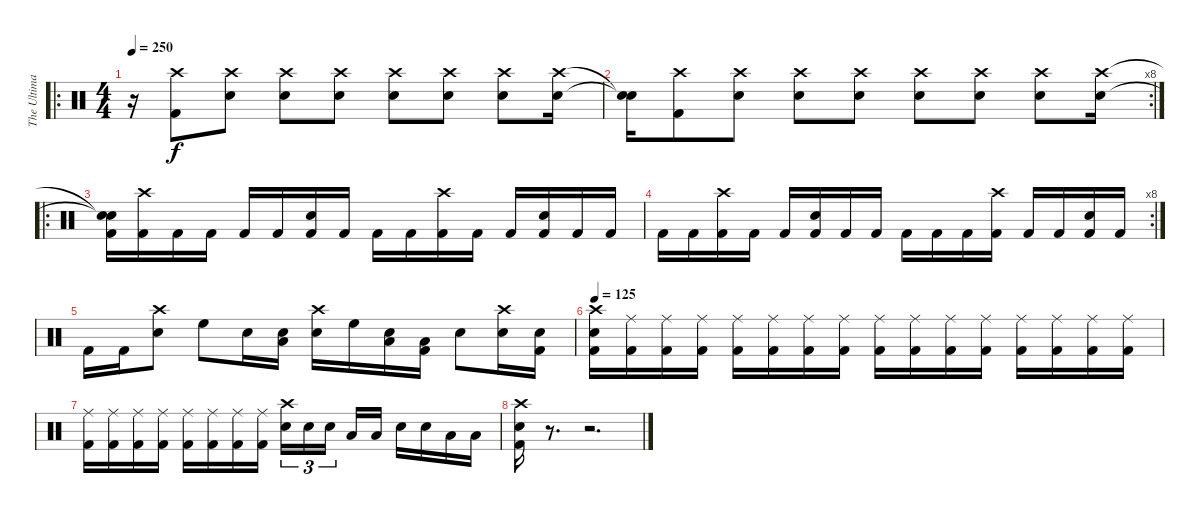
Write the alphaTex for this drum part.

\track ("The Ultimate hero" "The Ultima") {instrument percussion}
\staff {score}
\articulation defaults
\ro
\ts (4 4)
\tempo 250
\clef neutral
\ks c
r.16{dy f} ("Crash high (hit)" "Kick (hit) 2").8 ("Crash high (hit)" "Snare (hit) 2").8 ("Crash high (hit)" "Snare (hit) 2").8 ("Crash high (hit)" "Snare (hit) 2").8 ("Crash high (hit)" "Snare (hit) 2").8 ("Crash high (hit)" "Snare (hit) 2").8 ("Crash high (hit)" "Snare (hit) 2").8 ("Crash high (hit)" "Snare (hit) 2").16 |
\rc 8
("Snare (hit)"{t} "Snare (hit)"{t}).16 ("Crash high (hit)" "Kick (hit) 2").8 ("Crash high (hit)" "Snare (hit) 2").8 ("Crash high (hit)" "Snare (hit) 2").8 ("Crash high (hit)" "Snare (hit) 2").8 ("Crash high (hit)" "Snare (hit) 2").8 ("Crash high (hit)" "Snare (hit) 2").8 ("Crash high (hit)" "Snare (hit) 2").8 ("Crash high (hit)" "Snare (hit) 2").16 |
\ro
("Snare (hit)"{t} "Snare (hit)"{t} "Kick (hit) 2").16 ("Crash high (hit)" "Kick (hit) 2").16 "Kick (hit) 2".16 "Kick (hit) 2".16 "Kick (hit) 2".16 "Kick (hit) 2".16 ("Snare (hit) 2" "Kick (hit) 2").16 "Kick (hit) 2".16 "Kick (hit) 2".16 "Kick (hit) 2".16 ("Crash high (hit)" "Kick (hit) 2").16 "Kick (hit) 2".16 "Kick (hit) 2".16 ("Snare (hit) 2" "Kick (hit) 2").16 "Kick (hit) 2".16 "Kick (hit) 2".16 |
\rc 8 "Kick (hit) 2".16 "Kick (hit) 2".16
("Crash high (hit)" "Kick (hit) 2").16 "Kick (hit) 2".16 "Kick (hit) 2".16 ("Snare (hit) 2" "Kick (hit) 2").16 "Kick (hit) 2".16 "Kick (hit) 2".16 "Kick (hit) 2".16 "Kick (hit) 2".16 "Kick (hit) 2".16 ("Crash high (hit)" "Kick (hit) 2").16 "Kick (hit) 2".16 "Kick (hit) 2".16 ("Snare (hit) 2" "Kick (hit) 2").16 "Kick (hit) 2".16 |
"Kick (hit) 2".16 "Kick (hit) 2".16 ("Crash high (hit)" "Snare (hit) 2").8 "High Floor Tom (hit)".8 "Snare (hit) 2".16 ("Low Tom (hit)" "Snare (hit) 2").16 ("Crash high (hit)" "Snare (hit) 2").16 "High Floor Tom (hit)".16 ("Low Tom (hit)" "Snare (hit) 2").16 ("Low Tom (hit)" "Kick (hit) 2").16 "Snare (hit) 2".8 ("Crash high (hit)" "Snare (hit) 2").16 ("Snare (hit) 2" "Kick (hit) 2").16 |
\tempo 125
("Crash high (hit)" "Snare (hit) 2" "Kick (hit) 2").16 ("Ride (middle)" "Kick (hit) 2").16 ("Ride (middle)" "Kick (hit) 2").16 ("Ride (middle)" "Kick (hit) 2").16 ("Ride (middle)" "Kick (hit) 2").16 ("Ride (middle)" "Kick (hit) 2").16 ("Ride (middle)" "Kick (hit) 2").16 ("Ride (middle)" "Kick (hit) 2").16 ("Ride (middle)" "Kick (hit) 2").16 ("Ride (middle)" "Kick (hit) 2").16 ("Ride (middle)" "Kick (hit) 2").16 ("Ride (middle)" "Kick (hit) 2").16 ("Ride (middle)" "Kick (hit) 2").16 ("Ride (middle)" "Kick (hit) 2").16 ("Ride (middle)" "Kick (hit) 2").16 ("Ride (middle)" "Kick (hit) 2").16 |
("Ride (middle)" "Kick (hit) 2").16 ("Ride (middle)" "Kick (hit) 2").16 ("Ride (middle)" "Kick (hit) 2").16 ("Ride (middle)" "Kick (hit) 2").16 ("Ride (middle)" "Kick (hit) 2").16 ("Ride (middle)" "Kick (hit) 2").16 ("Ride (middle)" "Kick (hit) 2").16 ("Ride (middle)" "Kick (hit) 2").16 ("Crash high (hit)" "Snare (hit) 2").16{tu (3 2)} "Snare (hit) 2".16{tu (3 2)} "Snare (hit) 2".16{tu (3 2)} "Low Tom (hit)".16 "Low Tom (hit)".16 "Snare (hit) 2".16 "Snare (hit) 2".16 "Low Tom (hit)".16 "Low Tom (hit)".16 |
("Crash high (hit)" "Snare (hit) 2" "Kick (hit) 2").16 r.8{d} r.2{d}
